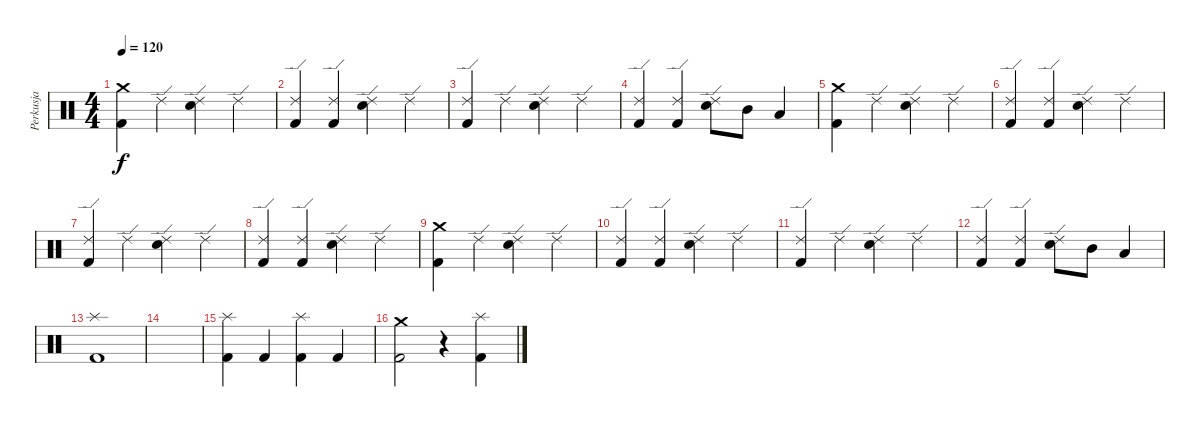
\track ("Perkusja" "Perkusja") {instrument percussion}
\staff {score}
\articulation defaults
\ts (4 4)
\tempo 120
\clef neutral
\ks c
("Crash medium (hit)" "Kick (hit) 2").4{dy f} "Ride (edge) 2".4 ("Ride (edge) 2" "Snare (hit) 2").4 "Ride (edge) 2".4 |
("Ride (edge) 2" "Kick (hit) 2").4 ("Ride (edge) 2" "Kick (hit) 2").4 ("Ride (edge) 2" "Snare (hit) 2").4 "Ride (edge) 2".4 |
("Ride (edge) 2" "Kick (hit) 2").4 "Ride (edge) 2".4 ("Ride (edge) 2" "Snare (hit) 2").4 "Ride (edge) 2".4 |
("Ride (edge) 2" "Kick (hit) 2").4 ("Ride (edge) 2" "Kick (hit) 2").4 ("Ride (edge) 2" "Snare (hit) 2").8 "Mid Tom (hit)".8 "Low Tom (hit)".4 |
("Crash medium (hit)" "Kick (hit) 2").4 "Ride (edge) 2".4 ("Ride (edge) 2" "Snare (hit) 2").4 "Ride (edge) 2".4 |
("Ride (edge) 2" "Kick (hit) 2").4 ("Ride (edge) 2" "Kick (hit) 2").4 ("Ride (edge) 2" "Snare (hit) 2").4 "Ride (edge) 2".4 |
("Ride (edge) 2" "Kick (hit) 2").4 "Ride (edge) 2".4 ("Ride (edge) 2" "Snare (hit) 2").4 "Ride (edge) 2".4 |
("Ride (edge) 2" "Kick (hit) 2").4 ("Ride (edge) 2" "Kick (hit) 2").4 ("Ride (edge) 2" "Snare (hit) 2").4 "Ride (edge) 2".4 |
("Crash medium (hit)" "Kick (hit) 2").4 "Ride (edge) 2".4 ("Ride (edge) 2" "Snare (hit) 2").4 "Ride (edge) 2".4 |
("Ride (edge) 2" "Kick (hit) 2").4 ("Ride (edge) 2" "Kick (hit) 2").4 ("Ride (edge) 2" "Snare (hit) 2").4 "Ride (edge) 2".4 |
("Ride (edge) 2" "Kick (hit) 2").4 "Ride (edge) 2".4 ("Ride (edge) 2" "Snare (hit) 2").4 "Ride (edge) 2".4 |
("Ride (edge) 2" "Kick (hit) 2").4 ("Ride (edge) 2" "Kick (hit) 2").4 ("Ride (edge) 2" "Snare (hit) 2").8 "Mid Tom (hit)".8 "Low Tom (hit)".4 |
("Splash (hit)" "Kick (hit) 2").1 |
|
("Splash (hit)" "Kick (hit) 2").4 "Kick (hit) 2".4 ("Splash (hit)" "Kick (hit) 2").4 "Kick (hit) 2".4 |
("Crash medium (hit)" "Kick (hit) 2").2 r.4 ("Splash (hit)" "Kick (hit) 2").4
